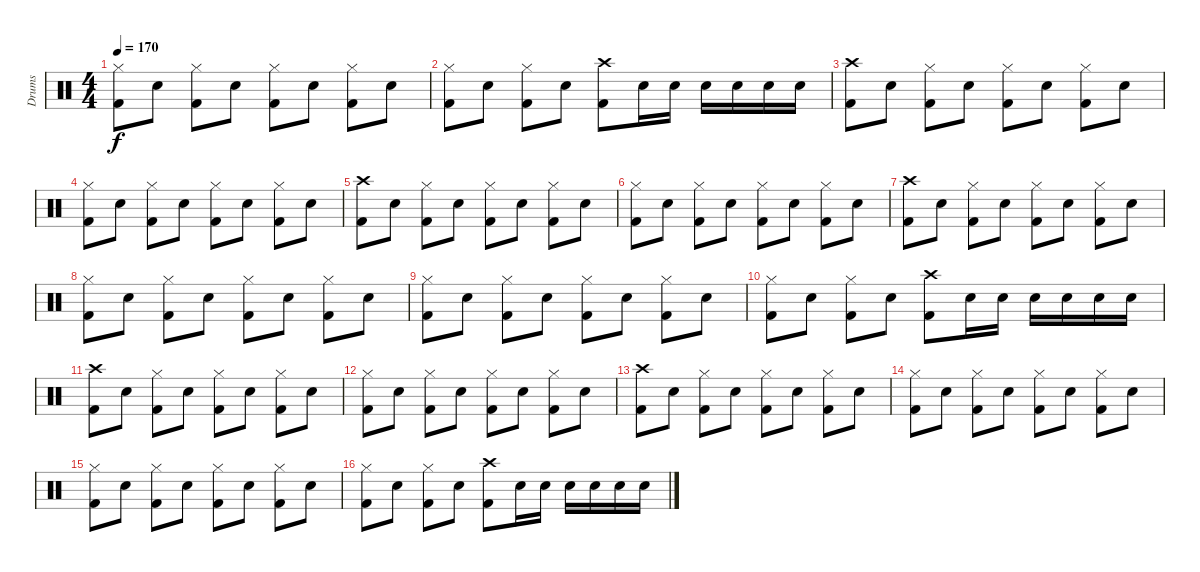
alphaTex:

\track ("Drums" "Drums") {instrument percussion}
\staff {score}
\articulation defaults
\ts (4 4)
\tempo 170
\clef neutral
\ks c
("Hi-Hat (closed)" "Kick (hit) 2").8{dy f} "Electric Snare (hit)".8 ("Hi-Hat (closed)" "Kick (hit) 2").8 "Electric Snare (hit)".8 ("Hi-Hat (closed)" "Kick (hit) 2").8 "Electric Snare (hit)".8 ("Hi-Hat (closed)" "Kick (hit) 2").8 "Electric Snare (hit)".8 |
("Hi-Hat (closed)" "Kick (hit) 2").8 "Electric Snare (hit)".8 ("Hi-Hat (closed)" "Kick (hit) 2").8 "Electric Snare (hit)".8 ("Crash high (hit)" "Kick (hit) 2").8 "Electric Snare (hit)".16 "Electric Snare (hit)".16 "Electric Snare (hit)".16 "Electric Snare (hit)".16 "Electric Snare (hit)".16 "Electric Snare (hit)".16 |
("Crash high (hit)" "Kick (hit) 2").8 "Electric Snare (hit)".8 ("Hi-Hat (closed)" "Kick (hit) 2").8 "Electric Snare (hit)".8 ("Hi-Hat (closed)" "Kick (hit) 2").8 "Electric Snare (hit)".8 ("Hi-Hat (closed)" "Kick (hit) 2").8 "Electric Snare (hit)".8 |
("Hi-Hat (closed)" "Kick (hit) 2").8 "Electric Snare (hit)".8 ("Hi-Hat (closed)" "Kick (hit) 2").8 "Electric Snare (hit)".8 ("Hi-Hat (closed)" "Kick (hit) 2").8 "Electric Snare (hit)".8 ("Hi-Hat (closed)" "Kick (hit) 2").8 "Electric Snare (hit)".8 |
("Crash high (hit)" "Kick (hit) 2").8 "Electric Snare (hit)".8 ("Hi-Hat (closed)" "Kick (hit) 2").8 "Electric Snare (hit)".8 ("Hi-Hat (closed)" "Kick (hit) 2").8 "Electric Snare (hit)".8 ("Hi-Hat (closed)" "Kick (hit) 2").8 "Electric Snare (hit)".8 |
("Hi-Hat (closed)" "Kick (hit) 2").8 "Electric Snare (hit)".8 ("Hi-Hat (closed)" "Kick (hit) 2").8 "Electric Snare (hit)".8 ("Hi-Hat (closed)" "Kick (hit) 2").8 "Electric Snare (hit)".8 ("Hi-Hat (closed)" "Kick (hit) 2").8 "Electric Snare (hit)".8 |
("Crash high (hit)" "Kick (hit) 2").8 "Electric Snare (hit)".8 ("Hi-Hat (closed)" "Kick (hit) 2").8 "Electric Snare (hit)".8 ("Hi-Hat (closed)" "Kick (hit) 2").8 "Electric Snare (hit)".8 ("Hi-Hat (closed)" "Kick (hit) 2").8 "Electric Snare (hit)".8 |
("Hi-Hat (closed)" "Kick (hit) 2").8 "Electric Snare (hit)".8 ("Hi-Hat (closed)" "Kick (hit) 2").8 "Electric Snare (hit)".8 ("Hi-Hat (closed)" "Kick (hit) 2").8 "Electric Snare (hit)".8 ("Hi-Hat (closed)" "Kick (hit) 2").8 "Electric Snare (hit)".8 |
("Hi-Hat (closed)" "Kick (hit) 2").8 "Electric Snare (hit)".8 ("Hi-Hat (closed)" "Kick (hit) 2").8 "Electric Snare (hit)".8 ("Hi-Hat (closed)" "Kick (hit) 2").8 "Electric Snare (hit)".8 ("Hi-Hat (closed)" "Kick (hit) 2").8 "Electric Snare (hit)".8 |
("Hi-Hat (closed)" "Kick (hit) 2").8 "Electric Snare (hit)".8 ("Hi-Hat (closed)" "Kick (hit) 2").8 "Electric Snare (hit)".8 ("Crash high (hit)" "Kick (hit) 2").8 "Electric Snare (hit)".16 "Electric Snare (hit)".16 "Electric Snare (hit)".16 "Electric Snare (hit)".16 "Electric Snare (hit)".16 "Electric Snare (hit)".16 |
("Crash high (hit)" "Kick (hit) 2").8 "Electric Snare (hit)".8 ("Hi-Hat (closed)" "Kick (hit) 2").8 "Electric Snare (hit)".8 ("Hi-Hat (closed)" "Kick (hit) 2").8 "Electric Snare (hit)".8 ("Hi-Hat (closed)" "Kick (hit) 2").8 "Electric Snare (hit)".8 |
("Hi-Hat (closed)" "Kick (hit) 2").8 "Electric Snare (hit)".8 ("Hi-Hat (closed)" "Kick (hit) 2").8 "Electric Snare (hit)".8 ("Hi-Hat (closed)" "Kick (hit) 2").8 "Electric Snare (hit)".8 ("Hi-Hat (closed)" "Kick (hit) 2").8 "Electric Snare (hit)".8 |
("Crash high (hit)" "Kick (hit) 2").8 "Electric Snare (hit)".8 ("Hi-Hat (closed)" "Kick (hit) 2").8 "Electric Snare (hit)".8 ("Hi-Hat (closed)" "Kick (hit) 2").8 "Electric Snare (hit)".8 ("Hi-Hat (closed)" "Kick (hit) 2").8 "Electric Snare (hit)".8 |
("Hi-Hat (closed)" "Kick (hit) 2").8 "Electric Snare (hit)".8 ("Hi-Hat (closed)" "Kick (hit) 2").8 "Electric Snare (hit)".8 ("Hi-Hat (closed)" "Kick (hit) 2").8 "Electric Snare (hit)".8 ("Hi-Hat (closed)" "Kick (hit) 2").8 "Electric Snare (hit)".8 |
("Hi-Hat (closed)" "Kick (hit) 2").8 "Electric Snare (hit)".8 ("Hi-Hat (closed)" "Kick (hit) 2").8 "Electric Snare (hit)".8 ("Hi-Hat (closed)" "Kick (hit) 2").8 "Electric Snare (hit)".8 ("Hi-Hat (closed)" "Kick (hit) 2").8 "Electric Snare (hit)".8 |
("Hi-Hat (closed)" "Kick (hit) 2").8 "Electric Snare (hit)".8 ("Hi-Hat (closed)" "Kick (hit) 2").8 "Electric Snare (hit)".8 ("Crash high (hit)" "Kick (hit) 2").8 "Electric Snare (hit)".16 "Electric Snare (hit)".16 "Electric Snare (hit)".16 "Electric Snare (hit)".16 "Electric Snare (hit)".16 "Electric Snare (hit)".16
